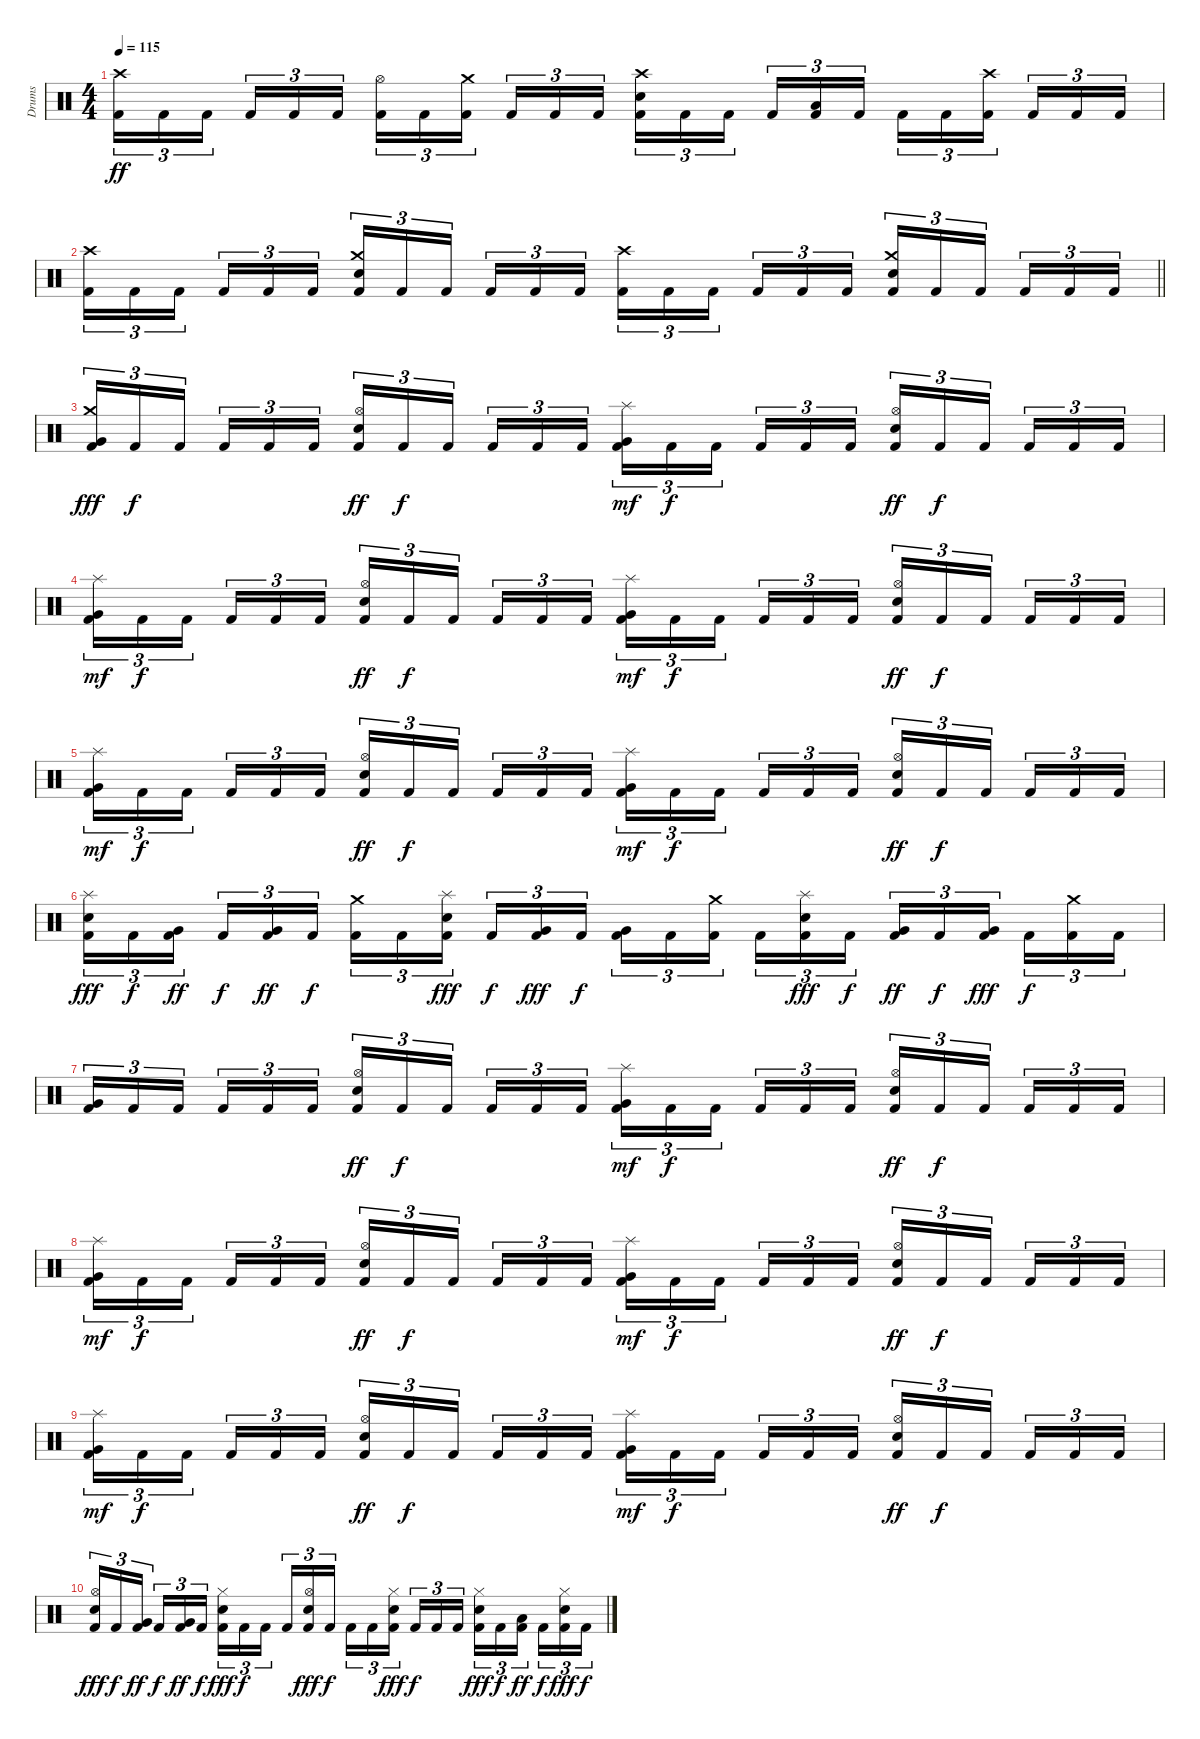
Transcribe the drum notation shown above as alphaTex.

\track ("Drums" "Drums") {instrument percussion}
\staff {score}
\articulation defaults
\ts (4 4)
\tempo 115
\clef neutral
\ks c
("Crash high (hit)" "Kick (hit) 2").16{tu (3 2) dy ff} "Kick (hit) 2".16{tu (3 2)} "Kick (hit) 2".16{tu (3 2) beam splitsecondary} "Kick (hit) 2".16{tu (3 2)} "Kick (hit) 2".16{tu (3 2)} "Kick (hit) 2".16{tu (3 2)} ("Hi-Hat (open)" "Kick (hit) 2").16{tu (3 2)} "Kick (hit) 2".16{tu (3 2)} ("Crash medium (hit)" "Kick (hit) 2").16{tu (3 2) beam splitsecondary} "Kick (hit) 2".16{tu (3 2)} "Kick (hit) 2".16{tu (3 2)} "Kick (hit) 2".16{tu (3 2)} ("Crash high (hit)" "Snare (hit) 2" "Kick (hit) 2").16{tu (3 2)} "Kick (hit) 2".16{tu (3 2)} "Kick (hit) 2".16{tu (3 2) beam splitsecondary} "Kick (hit) 2".16{tu (3 2)} ("Low Tom (hit)" "Kick (hit) 2").16{tu (3 2)} "Kick (hit) 2".16{tu (3 2)} "Kick (hit) 2".16{tu (3 2)} "Kick (hit) 2".16{tu (3 2)} ("Crash high (hit)" "Kick (hit) 2").16{tu (3 2) beam splitsecondary} "Kick (hit) 2".16{tu (3 2)} "Kick (hit) 2".16{tu (3 2)} "Kick (hit) 2".16{tu (3 2)} |
\barLineRight lightlight
("Crash high (hit)" "Kick (hit) 2").16{tu (3 2)} "Kick (hit) 2".16{tu (3 2)} "Kick (hit) 2".16{tu (3 2) beam splitsecondary} "Kick (hit) 2".16{tu (3 2)} "Kick (hit) 2".16{tu (3 2)} "Kick (hit) 2".16{tu (3 2)} ("Crash medium (hit)" "Snare (hit) 2" "Kick (hit) 2").16{tu (3 2)} "Kick (hit) 2".16{tu (3 2)} "Kick (hit) 2".16{tu (3 2) beam splitsecondary} "Kick (hit) 2".16{tu (3 2)} "Kick (hit) 2".16{tu (3 2)} "Kick (hit) 2".16{tu (3 2)} ("Crash high (hit)" "Kick (hit) 2").16{tu (3 2)} "Kick (hit) 2".16{tu (3 2)} "Kick (hit) 2".16{tu (3 2) beam splitsecondary} "Kick (hit) 2".16{tu (3 2)} "Kick (hit) 2".16{tu (3 2)} "Kick (hit) 2".16{tu (3 2)} ("Crash medium (hit)" "Snare (hit) 2" "Kick (hit) 2").16{tu (3 2)} "Kick (hit) 2".16{tu (3 2)} "Kick (hit) 2".16{tu (3 2) beam splitsecondary} "Kick (hit) 2".16{tu (3 2)} "Kick (hit) 2".16{tu (3 2)} "Kick (hit) 2".16{tu (3 2)} |
\section ("" "")
("Crash medium (hit)" "Very Low Tom (hit)" "Kick (hit) 2").16{tu (3 2) dy fff} "Kick (hit) 2".16{tu (3 2) dy f} "Kick (hit) 2".16{tu (3 2) beam splitsecondary} "Kick (hit) 2".16{tu (3 2)} "Kick (hit) 2".16{tu (3 2)} "Kick (hit) 2".16{tu (3 2)} ("Hi-Hat (open)" "Snare (hit) 2" "Kick (hit) 2").16{tu (3 2) dy ff} "Kick (hit) 2".16{tu (3 2) dy f} "Kick (hit) 2".16{tu (3 2) beam splitsecondary} "Kick (hit) 2".16{tu (3 2)} "Kick (hit) 2".16{tu (3 2)} "Kick (hit) 2".16{tu (3 2)} ("Splash (hit)" "Very Low Tom (hit)" "Kick (hit) 2").16{tu (3 2) dy mf} "Kick (hit) 2".16{tu (3 2) dy f} "Kick (hit) 2".16{tu (3 2) beam splitsecondary} "Kick (hit) 2".16{tu (3 2)} "Kick (hit) 2".16{tu (3 2)} "Kick (hit) 2".16{tu (3 2)} ("Hi-Hat (open)" "Snare (hit) 2" "Kick (hit) 2").16{tu (3 2) dy ff} "Kick (hit) 2".16{tu (3 2) dy f} "Kick (hit) 2".16{tu (3 2) beam splitsecondary} "Kick (hit) 2".16{tu (3 2)} "Kick (hit) 2".16{tu (3 2)} "Kick (hit) 2".16{tu (3 2)} |
("Splash (hit)" "Very Low Tom (hit)" "Kick (hit) 2").16{tu (3 2) dy mf} "Kick (hit) 2".16{tu (3 2) dy f} "Kick (hit) 2".16{tu (3 2) beam splitsecondary} "Kick (hit) 2".16{tu (3 2)} "Kick (hit) 2".16{tu (3 2)} "Kick (hit) 2".16{tu (3 2)} ("Hi-Hat (open)" "Snare (hit) 2" "Kick (hit) 2").16{tu (3 2) dy ff} "Kick (hit) 2".16{tu (3 2) dy f} "Kick (hit) 2".16{tu (3 2) beam splitsecondary} "Kick (hit) 2".16{tu (3 2)} "Kick (hit) 2".16{tu (3 2)} "Kick (hit) 2".16{tu (3 2)} ("Splash (hit)" "Very Low Tom (hit)" "Kick (hit) 2").16{tu (3 2) dy mf} "Kick (hit) 2".16{tu (3 2) dy f} "Kick (hit) 2".16{tu (3 2) beam splitsecondary} "Kick (hit) 2".16{tu (3 2)} "Kick (hit) 2".16{tu (3 2)} "Kick (hit) 2".16{tu (3 2)} ("Hi-Hat (open)" "Snare (hit) 2" "Kick (hit) 2").16{tu (3 2) dy ff} "Kick (hit) 2".16{tu (3 2) dy f} "Kick (hit) 2".16{tu (3 2) beam splitsecondary} "Kick (hit) 2".16{tu (3 2)} "Kick (hit) 2".16{tu (3 2)} "Kick (hit) 2".16{tu (3 2)} |
("Splash (hit)" "Very Low Tom (hit)" "Kick (hit) 2").16{tu (3 2) dy mf} "Kick (hit) 2".16{tu (3 2) dy f} "Kick (hit) 2".16{tu (3 2) beam splitsecondary} "Kick (hit) 2".16{tu (3 2)} "Kick (hit) 2".16{tu (3 2)} "Kick (hit) 2".16{tu (3 2)} ("Hi-Hat (open)" "Snare (hit) 2" "Kick (hit) 2").16{tu (3 2) dy ff} "Kick (hit) 2".16{tu (3 2) dy f} "Kick (hit) 2".16{tu (3 2) beam splitsecondary} "Kick (hit) 2".16{tu (3 2)} "Kick (hit) 2".16{tu (3 2)} "Kick (hit) 2".16{tu (3 2)} ("Splash (hit)" "Very Low Tom (hit)" "Kick (hit) 2").16{tu (3 2) dy mf} "Kick (hit) 2".16{tu (3 2) dy f} "Kick (hit) 2".16{tu (3 2) beam splitsecondary} "Kick (hit) 2".16{tu (3 2)} "Kick (hit) 2".16{tu (3 2)} "Kick (hit) 2".16{tu (3 2)} ("Hi-Hat (open)" "Snare (hit) 2" "Kick (hit) 2").16{tu (3 2) dy ff} "Kick (hit) 2".16{tu (3 2) dy f} "Kick (hit) 2".16{tu (3 2) beam splitsecondary} "Kick (hit) 2".16{tu (3 2)} "Kick (hit) 2".16{tu (3 2)} "Kick (hit) 2".16{tu (3 2)} |
("Splash (hit)" "Snare (hit) 2" "Kick (hit) 2").16{tu (3 2) dy fff} "Kick (hit) 2".16{tu (3 2) dy f} ("Very Low Tom (hit)" "Kick (hit) 2").16{tu (3 2) dy ff beam splitsecondary} "Kick (hit) 2".16{tu (3 2) dy f} ("Very Low Tom (hit)" "Kick (hit) 2").16{tu (3 2) dy ff} "Kick (hit) 2".16{tu (3 2) dy f} ("Crash medium (hit)" "Kick (hit) 2").16{tu (3 2)} "Kick (hit) 2".16{tu (3 2)} ("Splash (hit)" "Snare (hit) 2" "Kick (hit) 2").16{tu (3 2) dy fff beam splitsecondary} "Kick (hit) 2".16{tu (3 2) dy f} ("Very Low Tom (hit)" "Kick (hit) 2").16{tu (3 2) dy fff} "Kick (hit) 2".16{tu (3 2) dy f} ("Very Low Tom (hit)" "Kick (hit) 2").16{tu (3 2)} "Kick (hit) 2".16{tu (3 2)} ("Crash medium (hit)" "Kick (hit) 2").16{tu (3 2) beam splitsecondary} "Kick (hit) 2".16{tu (3 2)} ("Splash (hit)" "Snare (hit) 2" "Kick (hit) 2").16{tu (3 2) dy fff} "Kick (hit) 2".16{tu (3 2) dy f} ("Very Low Tom (hit)" "Kick (hit) 2").16{tu (3 2) dy ff} "Kick (hit) 2".16{tu (3 2) dy f} ("Very Low Tom (hit)" "Kick (hit) 2").16{tu (3 2) dy fff beam splitsecondary} "Kick (hit) 2".16{tu (3 2) dy f} ("Crash medium (hit)" "Kick (hit) 2").16{tu (3 2)} "Kick (hit) 2".16{tu (3 2)} |
("Very Low Tom (hit)" "Kick (hit) 2").16{tu (3 2)} "Kick (hit) 2".16{tu (3 2)} "Kick (hit) 2".16{tu (3 2) beam splitsecondary} "Kick (hit) 2".16{tu (3 2)} "Kick (hit) 2".16{tu (3 2)} "Kick (hit) 2".16{tu (3 2)} ("Hi-Hat (open)" "Snare (hit) 2" "Kick (hit) 2").16{tu (3 2) dy ff} "Kick (hit) 2".16{tu (3 2) dy f} "Kick (hit) 2".16{tu (3 2) beam splitsecondary} "Kick (hit) 2".16{tu (3 2)} "Kick (hit) 2".16{tu (3 2)} "Kick (hit) 2".16{tu (3 2)} ("Splash (hit)" "Very Low Tom (hit)" "Kick (hit) 2").16{tu (3 2) dy mf} "Kick (hit) 2".16{tu (3 2) dy f} "Kick (hit) 2".16{tu (3 2) beam splitsecondary} "Kick (hit) 2".16{tu (3 2)} "Kick (hit) 2".16{tu (3 2)} "Kick (hit) 2".16{tu (3 2)} ("Hi-Hat (open)" "Snare (hit) 2" "Kick (hit) 2").16{tu (3 2) dy ff} "Kick (hit) 2".16{tu (3 2) dy f} "Kick (hit) 2".16{tu (3 2) beam splitsecondary} "Kick (hit) 2".16{tu (3 2)} "Kick (hit) 2".16{tu (3 2)} "Kick (hit) 2".16{tu (3 2)} |
("Splash (hit)" "Very Low Tom (hit)" "Kick (hit) 2").16{tu (3 2) dy mf} "Kick (hit) 2".16{tu (3 2) dy f} "Kick (hit) 2".16{tu (3 2) beam splitsecondary} "Kick (hit) 2".16{tu (3 2)} "Kick (hit) 2".16{tu (3 2)} "Kick (hit) 2".16{tu (3 2)} ("Hi-Hat (open)" "Snare (hit) 2" "Kick (hit) 2").16{tu (3 2) dy ff} "Kick (hit) 2".16{tu (3 2) dy f} "Kick (hit) 2".16{tu (3 2) beam splitsecondary} "Kick (hit) 2".16{tu (3 2)} "Kick (hit) 2".16{tu (3 2)} "Kick (hit) 2".16{tu (3 2)} ("Splash (hit)" "Very Low Tom (hit)" "Kick (hit) 2").16{tu (3 2) dy mf} "Kick (hit) 2".16{tu (3 2) dy f} "Kick (hit) 2".16{tu (3 2) beam splitsecondary} "Kick (hit) 2".16{tu (3 2)} "Kick (hit) 2".16{tu (3 2)} "Kick (hit) 2".16{tu (3 2)} ("Hi-Hat (open)" "Snare (hit) 2" "Kick (hit) 2").16{tu (3 2) dy ff} "Kick (hit) 2".16{tu (3 2) dy f} "Kick (hit) 2".16{tu (3 2) beam splitsecondary} "Kick (hit) 2".16{tu (3 2)} "Kick (hit) 2".16{tu (3 2)} "Kick (hit) 2".16{tu (3 2)} |
("Splash (hit)" "Very Low Tom (hit)" "Kick (hit) 2").16{tu (3 2) dy mf} "Kick (hit) 2".16{tu (3 2) dy f} "Kick (hit) 2".16{tu (3 2) beam splitsecondary} "Kick (hit) 2".16{tu (3 2)} "Kick (hit) 2".16{tu (3 2)} "Kick (hit) 2".16{tu (3 2)} ("Hi-Hat (open)" "Snare (hit) 2" "Kick (hit) 2").16{tu (3 2) dy ff} "Kick (hit) 2".16{tu (3 2) dy f} "Kick (hit) 2".16{tu (3 2) beam splitsecondary} "Kick (hit) 2".16{tu (3 2)} "Kick (hit) 2".16{tu (3 2)} "Kick (hit) 2".16{tu (3 2)} ("Splash (hit)" "Very Low Tom (hit)" "Kick (hit) 2").16{tu (3 2) dy mf} "Kick (hit) 2".16{tu (3 2) dy f} "Kick (hit) 2".16{tu (3 2) beam splitsecondary} "Kick (hit) 2".16{tu (3 2)} "Kick (hit) 2".16{tu (3 2)} "Kick (hit) 2".16{tu (3 2)} ("Hi-Hat (open)" "Snare (hit) 2" "Kick (hit) 2").16{tu (3 2) dy ff} "Kick (hit) 2".16{tu (3 2) dy f} "Kick (hit) 2".16{tu (3 2) beam splitsecondary} "Kick (hit) 2".16{tu (3 2)} "Kick (hit) 2".16{tu (3 2)} "Kick (hit) 2".16{tu (3 2)} |
("Hi-Hat (open)" "Snare (hit) 2" "Kick (hit) 2").16{tu (3 2) dy fff} "Kick (hit) 2".16{tu (3 2) dy f} ("Very Low Tom (hit)" "Kick (hit) 2").16{tu (3 2) dy ff beam splitsecondary} "Kick (hit) 2".16{tu (3 2) dy f} ("Very Low Tom (hit)" "Kick (hit) 2").16{tu (3 2) dy ff} "Kick (hit) 2".16{tu (3 2) dy f} ("Hi-Hat (closed)" "Snare (hit) 2" "Kick (hit) 2").16{tu (3 2) dy fff} "Kick (hit) 2".16{tu (3 2) dy f} "Kick (hit) 2".16{tu (3 2) beam splitsecondary} "Kick (hit) 2".16{tu (3 2)} ("Hi-Hat (open)" "Snare (hit) 2" "Kick (hit) 2").16{tu (3 2) dy fff} "Kick (hit) 2".16{tu (3 2) dy f} "Kick (hit) 2".16{tu (3 2)} "Kick (hit) 2".16{tu (3 2)} ("Hi-Hat (closed)" "Snare (hit) 2" "Kick (hit) 2").16{tu (3 2) dy fff beam splitsecondary} "Kick (hit) 2".16{tu (3 2) dy f} "Kick (hit) 2".16{tu (3 2)} "Kick (hit) 2".16{tu (3 2)} ("Hi-Hat (closed)" "Snare (hit) 2" "Kick (hit) 2").16{tu (3 2) dy fff} "Kick (hit) 2".16{tu (3 2) dy f} ("Low Floor Tom (hit)" "Kick (hit) 2").16{tu (3 2) dy ff beam splitsecondary} "Kick (hit) 2".16{tu (3 2) dy f} ("Hi-Hat (closed)" "Snare (hit) 2" "Kick (hit) 2").16{tu (3 2) dy fff} "Kick (hit) 2".16{tu (3 2) dy f}
